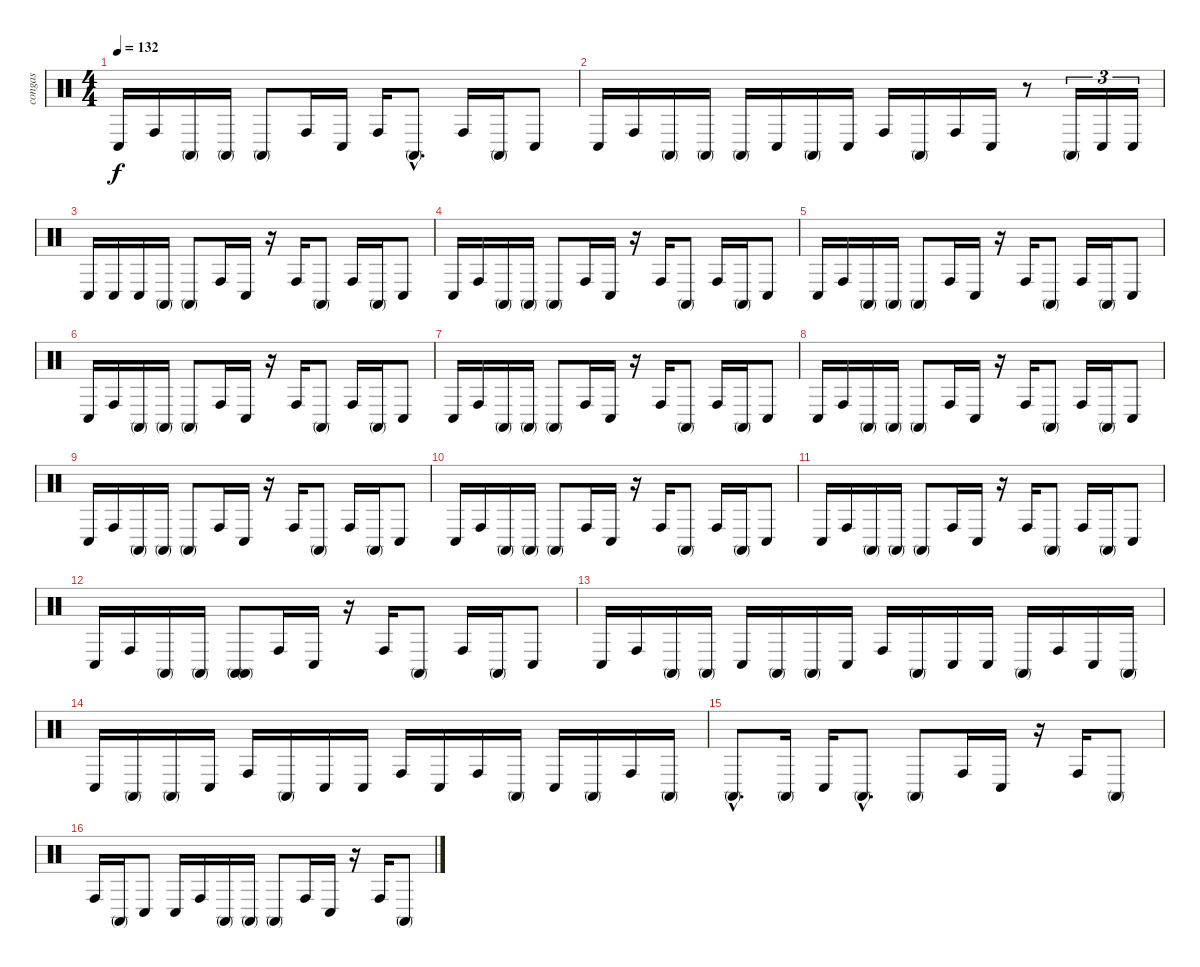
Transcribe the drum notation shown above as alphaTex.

\track ("congas" "congas") {instrument percussion}
\staff {score}
\articulation defaults
\ts (4 4)
\tempo 132
\clef neutral
\ks c "Conga low (hit)".16{dy f} "Conga high (hit)".16 "Conga high (mute)".16 "Conga high (mute)".16 "Conga high (mute)".8 "Conga high (hit)".16 "Conga low (hit)".16 "Conga high (hit)".16 "Conga high (mute)"{hac}.8{d} "Conga high (hit)".16 "Conga high (mute)".16 "Conga low (hit)".8
|
"Conga low (hit)".16 "Conga high (hit)".16 "Conga high (mute)".16 "Conga high (mute)".16 "Conga high (mute)".16 "Conga low (hit)".16 "Conga high (mute)".16 "Conga low (hit)".16 "Conga high (hit)".16 "Conga high (mute)".16 "Conga high (hit)".16 "Conga low (hit)".16 r.8 "Conga high (mute)".16{tu (3 2)} "Conga low (hit)".16{tu (3 2)} "Conga low (hit)".16{tu (3 2)} |
"Conga low (hit)".16 "Conga low (hit)".16 "Conga low (hit)".16 "Conga high (mute)".16 "Conga high (mute)".8 "Conga high (hit)".16 "Conga low (hit)".16 r.16 "Conga high (hit)".16 "Conga high (mute)".8 "Conga high (hit)".16 "Conga high (mute)".16 "Conga low (hit)".8 |
"Conga low (hit)".16 "Conga high (hit)".16 "Conga high (mute)".16 "Conga high (mute)".16 "Conga high (mute)".8 "Conga high (hit)".16 "Conga low (hit)".16 r.16 "Conga high (hit)".16 "Conga high (mute)".8 "Conga high (hit)".16 "Conga high (mute)".16 "Conga low (hit)".8 |
"Conga low (hit)".16 "Conga high (hit)".16 "Conga high (mute)".16 "Conga high (mute)".16 "Conga high (mute)".8 "Conga high (hit)".16 "Conga low (hit)".16 r.16 "Conga high (hit)".16 "Conga high (mute)".8 "Conga high (hit)".16 "Conga high (mute)".16 "Conga low (hit)".8 |
"Conga low (hit)".16 "Conga high (hit)".16 "Conga high (mute)".16 "Conga high (mute)".16 "Conga high (mute)".8 "Conga high (hit)".16 "Conga low (hit)".16 r.16 "Conga high (hit)".16 "Conga high (mute)".8 "Conga high (hit)".16 "Conga high (mute)".16 "Conga low (hit)".8 |
"Conga low (hit)".16 "Conga high (hit)".16 "Conga high (mute)".16 "Conga high (mute)".16 "Conga high (mute)".8 "Conga high (hit)".16 "Conga low (hit)".16 r.16 "Conga high (hit)".16 "Conga high (mute)".8 "Conga high (hit)".16 "Conga high (mute)".16 "Conga low (hit)".8 |
"Conga low (hit)".16 "Conga high (hit)".16 "Conga high (mute)".16 "Conga high (mute)".16 "Conga high (mute)".8 "Conga high (hit)".16 "Conga low (hit)".16 r.16 "Conga high (hit)".16 "Conga high (mute)".8 "Conga high (hit)".16 "Conga high (mute)".16 "Conga low (hit)".8 |
"Conga low (hit)".16 "Conga high (hit)".16 "Conga high (mute)".16 "Conga high (mute)".16 "Conga high (mute)".8 "Conga high (hit)".16 "Conga low (hit)".16 r.16 "Conga high (hit)".16 "Conga high (mute)".8 "Conga high (hit)".16 "Conga high (mute)".16 "Conga low (hit)".8 |
"Conga low (hit)".16 "Conga high (hit)".16 "Conga high (mute)".16 "Conga high (mute)".16 "Conga high (mute)".8 "Conga high (hit)".16 "Conga low (hit)".16 r.16 "Conga high (hit)".16 "Conga high (mute)".8 "Conga high (hit)".16 "Conga high (mute)".16 "Conga low (hit)".8 |
"Conga low (hit)".16 "Conga high (hit)".16 "Conga high (mute)".16 "Conga high (mute)".16 "Conga high (mute)".8 "Conga high (hit)".16 "Conga low (hit)".16 r.16 "Conga high (hit)".16 "Conga high (mute)".8 "Conga high (hit)".16 "Conga high (mute)".16 "Conga low (hit)".8 |
"Conga low (hit)".16 "Conga high (hit)".16 "Conga high (mute)".16 "Conga high (mute)".16 ("Conga high (mute)" "Conga high (mute)").8 "Conga high (hit)".16 "Conga low (hit)".16 r.16 "Conga high (hit)".16 "Conga high (mute)".8 "Conga high (hit)".16 "Conga high (mute)".16 "Conga low (hit)".8 |
"Conga low (hit)".16 "Conga high (hit)".16 "Conga high (mute)".16 "Conga high (mute)".16 "Conga low (hit)".16 "Conga high (mute)".16 "Conga high (mute)".16 "Conga low (hit)".16 "Conga high (hit)".16 "Conga high (mute)".16 "Conga low (hit)".16 "Conga low (hit)".16 "Conga high (mute)".16 "Conga high (hit)".16 "Conga low (hit)".16 "Conga high (mute)".16 |
"Conga low (hit)".16 "Conga high (mute)".16 "Conga high (mute)".16 "Conga low (hit)".16 "Conga high (hit)".16 "Conga high (mute)".16 "Conga low (hit)".16 "Conga low (hit)".16 "Conga high (hit)".16 "Conga low (hit)".16 "Conga high (hit)".16 "Conga high (mute)".16 "Conga low (hit)".16 "Conga high (mute)".16 "Conga high (hit)".16 "Conga high (mute)".16 |
"Conga high (mute)"{hac}.8{d} "Conga high (mute)".16 "Conga low (hit)".16 "Conga high (mute)"{hac}.8{d} "Conga high (mute)".8 "Conga high (hit)".16 "Conga low (hit)".16 r.16 "Conga high (hit)".16 "Conga high (mute)".8 |
"Conga high (hit)".16 "Conga high (mute)".16 "Conga low (hit)".8 "Conga low (hit)".16 "Conga high (hit)".16 "Conga high (mute)".16 "Conga high (mute)".16 "Conga high (mute)".8 "Conga high (hit)".16 "Conga low (hit)".16 r.16 "Conga high (hit)".16 "Conga high (mute)".8
